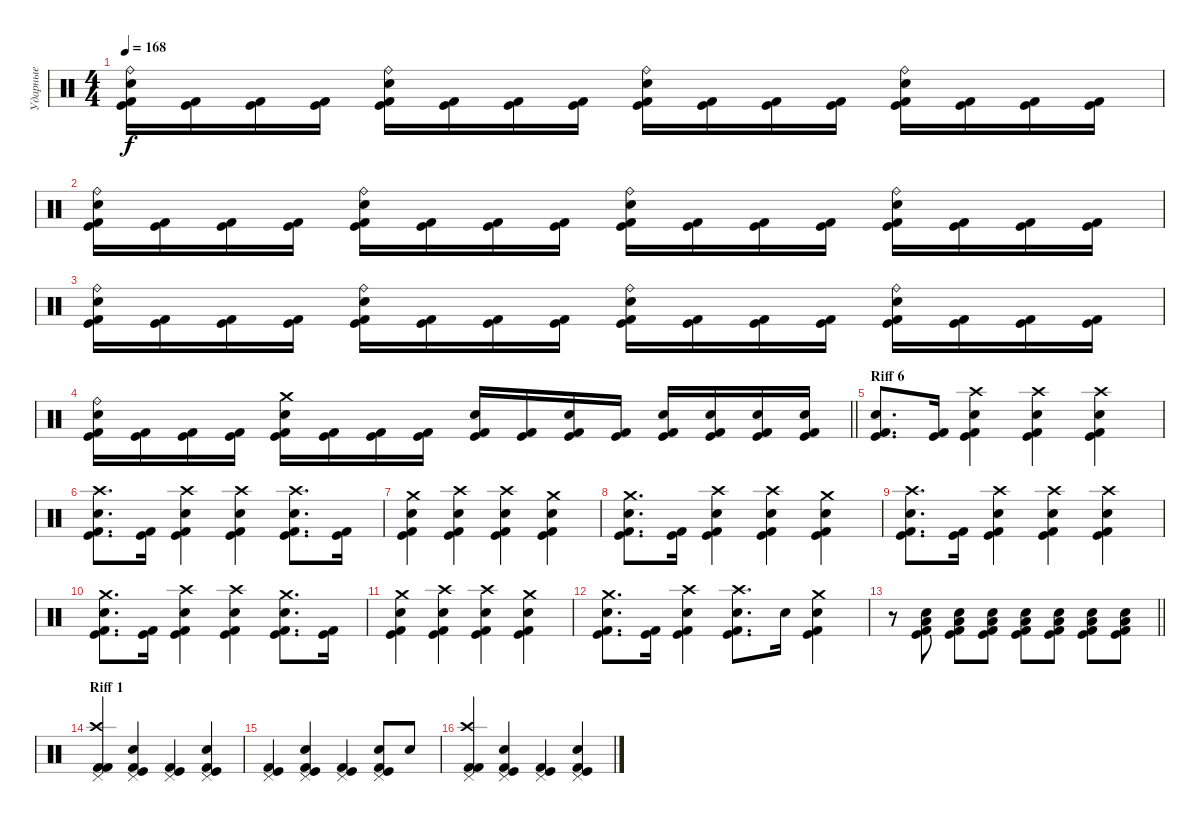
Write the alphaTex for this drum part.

\track ("Ударные" "Ударные") {instrument percussion}
\staff {score}
\articulation defaults
\ts (4 4)
\tempo 168
\clef neutral
\ks c
("Ride (bell)" "Electric Snare (hit)" "Kick (hit)" "Kick (hit) 2").16{dy f} ("Kick (hit)" "Kick (hit) 2").16 ("Kick (hit)" "Kick (hit) 2").16 ("Kick (hit)" "Kick (hit) 2").16 ("Ride (bell)" "Electric Snare (hit)" "Kick (hit)" "Kick (hit) 2").16 ("Kick (hit)" "Kick (hit) 2").16 ("Kick (hit)" "Kick (hit) 2").16 ("Kick (hit)" "Kick (hit) 2").16 ("Ride (bell)" "Electric Snare (hit)" "Kick (hit)" "Kick (hit) 2").16 ("Kick (hit)" "Kick (hit) 2").16 ("Kick (hit)" "Kick (hit) 2").16 ("Kick (hit)" "Kick (hit) 2").16 ("Ride (bell)" "Electric Snare (hit)" "Kick (hit)" "Kick (hit) 2").16 ("Kick (hit)" "Kick (hit) 2").16 ("Kick (hit)" "Kick (hit) 2").16 ("Kick (hit)" "Kick (hit) 2").16 |
("Ride (bell)" "Electric Snare (hit)" "Kick (hit)" "Kick (hit) 2").16 ("Kick (hit)" "Kick (hit) 2").16 ("Kick (hit)" "Kick (hit) 2").16 ("Kick (hit)" "Kick (hit) 2").16 ("Ride (bell)" "Electric Snare (hit)" "Kick (hit)" "Kick (hit) 2").16 ("Kick (hit)" "Kick (hit) 2").16 ("Kick (hit)" "Kick (hit) 2").16 ("Kick (hit)" "Kick (hit) 2").16 ("Ride (bell)" "Electric Snare (hit)" "Kick (hit)" "Kick (hit) 2").16 ("Kick (hit)" "Kick (hit) 2").16 ("Kick (hit)" "Kick (hit) 2").16 ("Kick (hit)" "Kick (hit) 2").16 ("Ride (bell)" "Electric Snare (hit)" "Kick (hit)" "Kick (hit) 2").16 ("Kick (hit)" "Kick (hit) 2").16 ("Kick (hit)" "Kick (hit) 2").16 ("Kick (hit)" "Kick (hit) 2").16 |
("Ride (bell)" "Electric Snare (hit)" "Kick (hit)" "Kick (hit) 2").16 ("Kick (hit)" "Kick (hit) 2").16 ("Kick (hit)" "Kick (hit) 2").16 ("Kick (hit)" "Kick (hit) 2").16 ("Ride (bell)" "Electric Snare (hit)" "Kick (hit)" "Kick (hit) 2").16 ("Kick (hit)" "Kick (hit) 2").16 ("Kick (hit)" "Kick (hit) 2").16 ("Kick (hit)" "Kick (hit) 2").16 ("Ride (bell)" "Electric Snare (hit)" "Kick (hit)" "Kick (hit) 2").16 ("Kick (hit)" "Kick (hit) 2").16 ("Kick (hit)" "Kick (hit) 2").16 ("Kick (hit)" "Kick (hit) 2").16 ("Ride (bell)" "Electric Snare (hit)" "Kick (hit)" "Kick (hit) 2").16 ("Kick (hit)" "Kick (hit) 2").16 ("Kick (hit)" "Kick (hit) 2").16 ("Kick (hit)" "Kick (hit) 2").16 |
\barLineRight lightlight
("Ride (bell)" "Electric Snare (hit)" "Kick (hit)" "Kick (hit) 2").16 ("Kick (hit)" "Kick (hit) 2").16 ("Kick (hit)" "Kick (hit) 2").16 ("Kick (hit)" "Kick (hit) 2").16 ("Crash medium (hit)" "Electric Snare (hit)" "Kick (hit)" "Kick (hit) 2").16 ("Kick (hit)" "Kick (hit) 2").16 ("Kick (hit)" "Kick (hit) 2").16 ("Kick (hit)" "Kick (hit) 2").16 ("Electric Snare (hit)" "Kick (hit)" "Kick (hit) 2").16 ("Kick (hit)" "Kick (hit) 2").16 ("Electric Snare (hit)" "Kick (hit)" "Kick (hit) 2").16 ("Kick (hit)" "Kick (hit) 2").16 ("Electric Snare (hit)" "Kick (hit)" "Kick (hit) 2").16 ("Electric Snare (hit)" "Kick (hit)" "Kick (hit) 2").16 ("Electric Snare (hit)" "Kick (hit)" "Kick (hit) 2").16 ("Electric Snare (hit)" "Kick (hit)" "Kick (hit) 2").16 |
\section ("" "Riff 6")
("Electric Snare (hit)" "Kick (hit)" "Kick (hit) 2").8{d} ("Kick (hit)" "Kick (hit) 2").16 ("Crash high (hit)" "Electric Snare (hit)" "Kick (hit)" "Kick (hit) 2").4 ("Crash high (hit)" "Electric Snare (hit)" "Kick (hit)" "Kick (hit) 2").4 ("Crash high (hit)" "Electric Snare (hit)" "Kick (hit)" "Kick (hit) 2").4 |
("Crash high (hit)" "Electric Snare (hit)" "Kick (hit)" "Kick (hit) 2").8{d} ("Kick (hit)" "Kick (hit) 2").16 ("Crash high (hit)" "Electric Snare (hit)" "Kick (hit) 2" "Kick (hit)").4 ("Crash high (hit)" "Electric Snare (hit)" "Kick (hit)" "Kick (hit) 2").4 ("Crash high (hit)" "Electric Snare (hit)" "Kick (hit)" "Kick (hit) 2").8{d} ("Kick (hit)" "Kick (hit) 2").16 |
("Crash medium (hit)" "Electric Snare (hit)" "Kick (hit)" "Kick (hit) 2").4 ("Crash high (hit)" "Electric Snare (hit)" "Kick (hit)" "Kick (hit) 2").4 ("Crash high (hit)" "Electric Snare (hit)" "Kick (hit)" "Kick (hit) 2").4 ("Crash medium (hit)" "Electric Snare (hit)" "Kick (hit)" "Kick (hit) 2").4 |
("Crash medium (hit)" "Electric Snare (hit)" "Kick (hit)" "Kick (hit) 2").8{d} ("Kick (hit)" "Kick (hit) 2").16 ("Crash high (hit)" "Electric Snare (hit)" "Kick (hit)" "Kick (hit) 2").4 ("Crash high (hit)" "Electric Snare (hit)" "Kick (hit)" "Kick (hit) 2").4 ("Crash medium (hit)" "Electric Snare (hit)" "Kick (hit)" "Kick (hit) 2").4 |
("Crash high (hit)" "Electric Snare (hit)" "Kick (hit)" "Kick (hit) 2").8{d} ("Kick (hit)" "Kick (hit) 2").16 ("Crash high (hit)" "Electric Snare (hit)" "Kick (hit)" "Kick (hit) 2").4 ("Crash high (hit)" "Electric Snare (hit)" "Kick (hit)" "Kick (hit) 2").4 ("Crash high (hit)" "Electric Snare (hit)" "Kick (hit)" "Kick (hit) 2").4 |
("Crash medium (hit)" "Electric Snare (hit)" "Kick (hit)" "Kick (hit) 2").8{d} ("Kick (hit)" "Kick (hit) 2").16 ("Crash high (hit)" "Electric Snare (hit)" "Kick (hit) 2" "Kick (hit)").4 ("Crash high (hit)" "Electric Snare (hit)" "Kick (hit)" "Kick (hit) 2").4 ("Crash medium (hit)" "Electric Snare (hit)" "Kick (hit)" "Kick (hit) 2").8{d} ("Kick (hit)" "Kick (hit) 2").16 |
("Crash medium (hit)" "Electric Snare (hit)" "Kick (hit)" "Kick (hit) 2").4 ("Crash high (hit)" "Electric Snare (hit)" "Kick (hit)" "Kick (hit) 2").4 ("Crash high (hit)" "Electric Snare (hit)" "Kick (hit)" "Kick (hit) 2").4 ("Crash medium (hit)" "Electric Snare (hit)" "Kick (hit)" "Kick (hit) 2").4 |
("Crash medium (hit)" "Electric Snare (hit)" "Kick (hit)" "Kick (hit) 2").8{d} ("Kick (hit)" "Kick (hit) 2").16 ("Crash high (hit)" "Electric Snare (hit)" "Kick (hit)" "Kick (hit) 2").4 ("Crash high (hit)" "Electric Snare (hit)" "Kick (hit)" "Kick (hit) 2").8{d} "Electric Snare (hit)".16 ("Crash medium (hit)" "Electric Snare (hit)" "Kick (hit)" "Kick (hit) 2").4 |
\barLineRight lightlight
r.8 ("Low Tom (hit)" "Electric Snare (hit)" "Kick (hit)" "Kick (hit) 2").8 ("Low Tom (hit)" "Electric Snare (hit)" "Kick (hit)" "Kick (hit) 2").8 ("Low Tom (hit)" "Electric Snare (hit)" "Kick (hit)" "Kick (hit) 2").8 ("Low Tom (hit)" "Electric Snare (hit)" "Kick (hit)" "Kick (hit) 2").8 ("Low Tom (hit)" "Electric Snare (hit)" "Kick (hit)" "Kick (hit) 2").8 ("Low Tom (hit)" "Electric Snare (hit)" "Kick (hit)" "Kick (hit) 2").8 ("Low Tom (hit)" "Electric Snare (hit)" "Kick (hit)" "Kick (hit) 2").8 |
\section ("" "Riff 1")
("Crash high (hit)" "Pedal Hi-Hat (hit)" "Kick (hit) 2" "Kick (hit) 2").4 ("Pedal Hi-Hat (hit)" "Electric Snare (hit)" "Kick (hit)" "Kick (hit) 2").4 ("Pedal Hi-Hat (hit)" "Kick (hit)" "Kick (hit) 2").4 ("Pedal Hi-Hat (hit)" "Electric Snare (hit)" "Kick (hit)" "Kick (hit) 2").4 |
("Pedal Hi-Hat (hit)" "Kick (hit)" "Kick (hit) 2").4 ("Pedal Hi-Hat (hit)" "Electric Snare (hit)" "Kick (hit)" "Kick (hit) 2").4 ("Pedal Hi-Hat (hit)" "Kick (hit)" "Kick (hit) 2").4 ("Pedal Hi-Hat (hit)" "Electric Snare (hit)" "Kick (hit)" "Kick (hit) 2").8 "Electric Snare (hit)".8 |
("Crash high (hit)" "Pedal Hi-Hat (hit)" "Kick (hit) 2" "Kick (hit) 2").4 ("Pedal Hi-Hat (hit)" "Electric Snare (hit)" "Kick (hit)" "Kick (hit) 2").4 ("Pedal Hi-Hat (hit)" "Kick (hit)" "Kick (hit) 2").4 ("Pedal Hi-Hat (hit)" "Electric Snare (hit)" "Kick (hit)" "Kick (hit) 2").4
